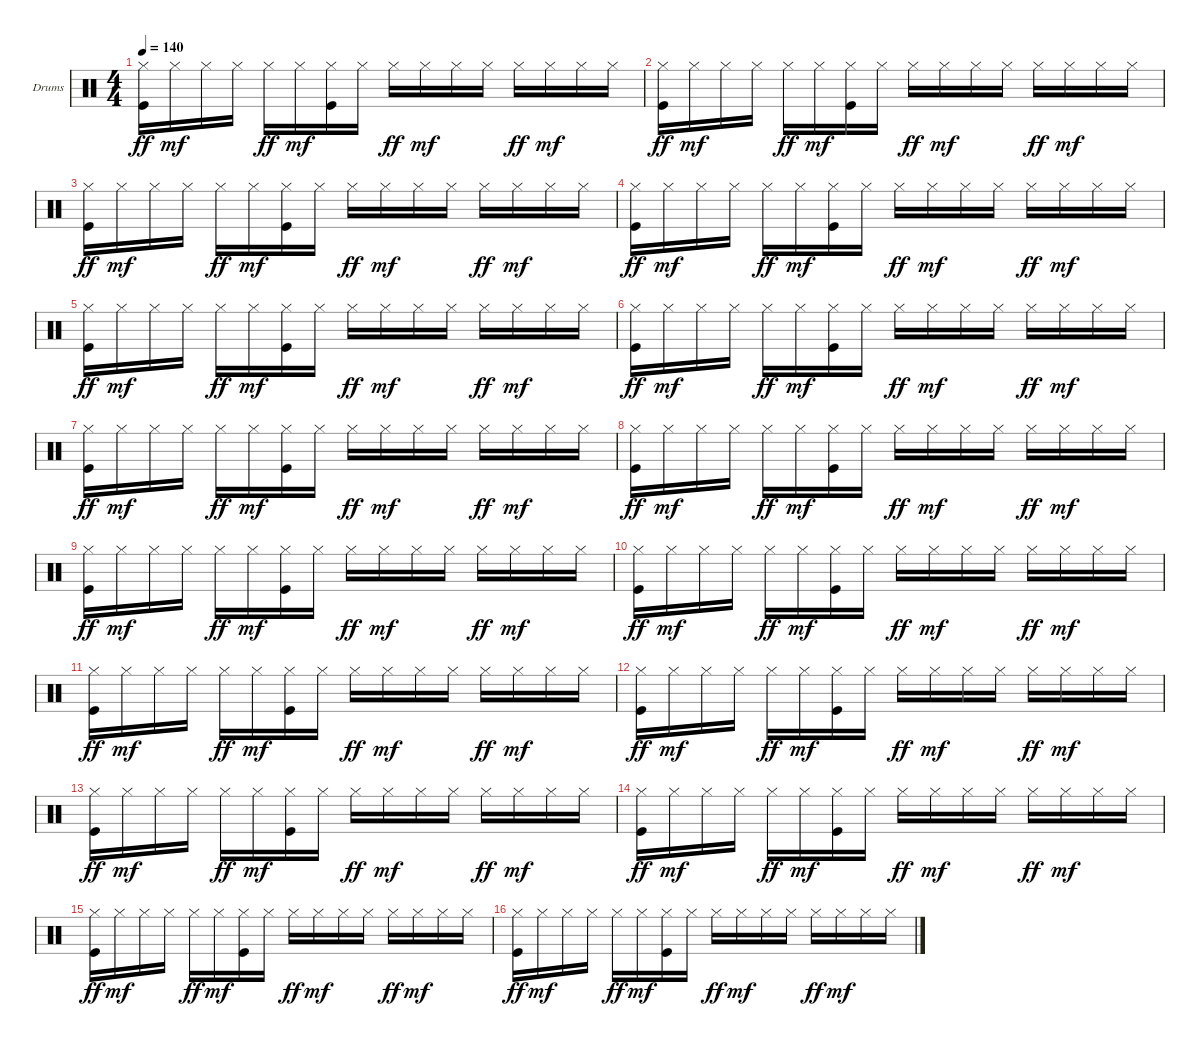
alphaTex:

\bracketExtendMode groupsimilarinstruments
\firstSystemTrackNameOrientation horizontal
\otherSystemsTrackNameOrientation horizontal
\track ("Drumkit" "Drums") {instrument percussion}
\staff {score}
\articulation defaults
\ts (4 4)
\tempo 140
\clef neutral
\ks c
("Hi-Hat (closed)" "Kick (hit)").16{dy ff} "Hi-Hat (closed)".16{dy mf} "Hi-Hat (closed)".16 "Hi-Hat (closed)".16 "Hi-Hat (closed)".16{dy ff} "Hi-Hat (closed)".16{dy mf} ("Hi-Hat (closed)" "Kick (hit)").16 "Hi-Hat (closed)".16 "Hi-Hat (closed)".16{dy ff} "Hi-Hat (closed)".16{dy mf} "Hi-Hat (closed)".16 "Hi-Hat (closed)".16 "Hi-Hat (closed)".16{dy ff} "Hi-Hat (closed)".16{dy mf} "Hi-Hat (closed)".16 "Hi-Hat (closed)".16 |
("Hi-Hat (closed)" "Kick (hit)").16{dy ff} "Hi-Hat (closed)".16{dy mf} "Hi-Hat (closed)".16 "Hi-Hat (closed)".16 "Hi-Hat (closed)".16{dy ff} "Hi-Hat (closed)".16{dy mf} ("Hi-Hat (closed)" "Kick (hit)").16 "Hi-Hat (closed)".16 "Hi-Hat (closed)".16{dy ff} "Hi-Hat (closed)".16{dy mf} "Hi-Hat (closed)".16 "Hi-Hat (closed)".16 "Hi-Hat (closed)".16{dy ff} "Hi-Hat (closed)".16{dy mf} "Hi-Hat (closed)".16 "Hi-Hat (closed)".16 |
("Hi-Hat (closed)" "Kick (hit)").16{dy ff} "Hi-Hat (closed)".16{dy mf} "Hi-Hat (closed)".16 "Hi-Hat (closed)".16 "Hi-Hat (closed)".16{dy ff} "Hi-Hat (closed)".16{dy mf} ("Hi-Hat (closed)" "Kick (hit)").16 "Hi-Hat (closed)".16 "Hi-Hat (closed)".16{dy ff} "Hi-Hat (closed)".16{dy mf} "Hi-Hat (closed)".16 "Hi-Hat (closed)".16 "Hi-Hat (closed)".16{dy ff} "Hi-Hat (closed)".16{dy mf} "Hi-Hat (closed)".16 "Hi-Hat (closed)".16 |
("Hi-Hat (closed)" "Kick (hit)").16{dy ff} "Hi-Hat (closed)".16{dy mf} "Hi-Hat (closed)".16 "Hi-Hat (closed)".16 "Hi-Hat (closed)".16{dy ff} "Hi-Hat (closed)".16{dy mf} ("Hi-Hat (closed)" "Kick (hit)").16 "Hi-Hat (closed)".16 "Hi-Hat (closed)".16{dy ff} "Hi-Hat (closed)".16{dy mf} "Hi-Hat (closed)".16 "Hi-Hat (closed)".16 "Hi-Hat (closed)".16{dy ff} "Hi-Hat (closed)".16{dy mf} "Hi-Hat (closed)".16 "Hi-Hat (closed)".16 |
("Hi-Hat (closed)" "Kick (hit)").16{dy ff} "Hi-Hat (closed)".16{dy mf} "Hi-Hat (closed)".16 "Hi-Hat (closed)".16 "Hi-Hat (closed)".16{dy ff} "Hi-Hat (closed)".16{dy mf} ("Hi-Hat (closed)" "Kick (hit)").16 "Hi-Hat (closed)".16 "Hi-Hat (closed)".16{dy ff} "Hi-Hat (closed)".16{dy mf} "Hi-Hat (closed)".16 "Hi-Hat (closed)".16 "Hi-Hat (closed)".16{dy ff} "Hi-Hat (closed)".16{dy mf} "Hi-Hat (closed)".16 "Hi-Hat (closed)".16 |
("Hi-Hat (closed)" "Kick (hit)").16{dy ff} "Hi-Hat (closed)".16{dy mf} "Hi-Hat (closed)".16 "Hi-Hat (closed)".16 "Hi-Hat (closed)".16{dy ff} "Hi-Hat (closed)".16{dy mf} ("Hi-Hat (closed)" "Kick (hit)").16 "Hi-Hat (closed)".16 "Hi-Hat (closed)".16{dy ff} "Hi-Hat (closed)".16{dy mf} "Hi-Hat (closed)".16 "Hi-Hat (closed)".16 "Hi-Hat (closed)".16{dy ff} "Hi-Hat (closed)".16{dy mf} "Hi-Hat (closed)".16 "Hi-Hat (closed)".16 |
("Hi-Hat (closed)" "Kick (hit)").16{dy ff} "Hi-Hat (closed)".16{dy mf} "Hi-Hat (closed)".16 "Hi-Hat (closed)".16 "Hi-Hat (closed)".16{dy ff} "Hi-Hat (closed)".16{dy mf} ("Hi-Hat (closed)" "Kick (hit)").16 "Hi-Hat (closed)".16 "Hi-Hat (closed)".16{dy ff} "Hi-Hat (closed)".16{dy mf} "Hi-Hat (closed)".16 "Hi-Hat (closed)".16 "Hi-Hat (closed)".16{dy ff} "Hi-Hat (closed)".16{dy mf} "Hi-Hat (closed)".16 "Hi-Hat (closed)".16 |
("Hi-Hat (closed)" "Kick (hit)").16{dy ff} "Hi-Hat (closed)".16{dy mf} "Hi-Hat (closed)".16 "Hi-Hat (closed)".16 "Hi-Hat (closed)".16{dy ff} "Hi-Hat (closed)".16{dy mf} ("Hi-Hat (closed)" "Kick (hit)").16 "Hi-Hat (closed)".16 "Hi-Hat (closed)".16{dy ff} "Hi-Hat (closed)".16{dy mf} "Hi-Hat (closed)".16 "Hi-Hat (closed)".16 "Hi-Hat (closed)".16{dy ff} "Hi-Hat (closed)".16{dy mf} "Hi-Hat (closed)".16 "Hi-Hat (closed)".16 |
("Hi-Hat (closed)" "Kick (hit)").16{dy ff} "Hi-Hat (closed)".16{dy mf} "Hi-Hat (closed)".16 "Hi-Hat (closed)".16 "Hi-Hat (closed)".16{dy ff} "Hi-Hat (closed)".16{dy mf} ("Hi-Hat (closed)" "Kick (hit)").16 "Hi-Hat (closed)".16 "Hi-Hat (closed)".16{dy ff} "Hi-Hat (closed)".16{dy mf} "Hi-Hat (closed)".16 "Hi-Hat (closed)".16 "Hi-Hat (closed)".16{dy ff} "Hi-Hat (closed)".16{dy mf} "Hi-Hat (closed)".16 "Hi-Hat (closed)".16 |
("Hi-Hat (closed)" "Kick (hit)").16{dy ff} "Hi-Hat (closed)".16{dy mf} "Hi-Hat (closed)".16 "Hi-Hat (closed)".16 "Hi-Hat (closed)".16{dy ff} "Hi-Hat (closed)".16{dy mf} ("Hi-Hat (closed)" "Kick (hit)").16 "Hi-Hat (closed)".16 "Hi-Hat (closed)".16{dy ff} "Hi-Hat (closed)".16{dy mf} "Hi-Hat (closed)".16 "Hi-Hat (closed)".16 "Hi-Hat (closed)".16{dy ff} "Hi-Hat (closed)".16{dy mf} "Hi-Hat (closed)".16 "Hi-Hat (closed)".16 |
("Hi-Hat (closed)" "Kick (hit)").16{dy ff} "Hi-Hat (closed)".16{dy mf} "Hi-Hat (closed)".16 "Hi-Hat (closed)".16 "Hi-Hat (closed)".16{dy ff} "Hi-Hat (closed)".16{dy mf} ("Hi-Hat (closed)" "Kick (hit)").16 "Hi-Hat (closed)".16 "Hi-Hat (closed)".16{dy ff} "Hi-Hat (closed)".16{dy mf} "Hi-Hat (closed)".16 "Hi-Hat (closed)".16 "Hi-Hat (closed)".16{dy ff} "Hi-Hat (closed)".16{dy mf} "Hi-Hat (closed)".16 "Hi-Hat (closed)".16 |
("Hi-Hat (closed)" "Kick (hit)").16{dy ff} "Hi-Hat (closed)".16{dy mf} "Hi-Hat (closed)".16 "Hi-Hat (closed)".16 "Hi-Hat (closed)".16{dy ff} "Hi-Hat (closed)".16{dy mf} ("Hi-Hat (closed)" "Kick (hit)").16 "Hi-Hat (closed)".16 "Hi-Hat (closed)".16{dy ff} "Hi-Hat (closed)".16{dy mf} "Hi-Hat (closed)".16 "Hi-Hat (closed)".16 "Hi-Hat (closed)".16{dy ff} "Hi-Hat (closed)".16{dy mf} "Hi-Hat (closed)".16 "Hi-Hat (closed)".16 |
("Hi-Hat (closed)" "Kick (hit)").16{dy ff} "Hi-Hat (closed)".16{dy mf} "Hi-Hat (closed)".16 "Hi-Hat (closed)".16 "Hi-Hat (closed)".16{dy ff} "Hi-Hat (closed)".16{dy mf} ("Hi-Hat (closed)" "Kick (hit)").16 "Hi-Hat (closed)".16 "Hi-Hat (closed)".16{dy ff} "Hi-Hat (closed)".16{dy mf} "Hi-Hat (closed)".16 "Hi-Hat (closed)".16 "Hi-Hat (closed)".16{dy ff} "Hi-Hat (closed)".16{dy mf} "Hi-Hat (closed)".16 "Hi-Hat (closed)".16 |
("Hi-Hat (closed)" "Kick (hit)").16{dy ff} "Hi-Hat (closed)".16{dy mf} "Hi-Hat (closed)".16 "Hi-Hat (closed)".16 "Hi-Hat (closed)".16{dy ff} "Hi-Hat (closed)".16{dy mf} ("Hi-Hat (closed)" "Kick (hit)").16 "Hi-Hat (closed)".16 "Hi-Hat (closed)".16{dy ff} "Hi-Hat (closed)".16{dy mf} "Hi-Hat (closed)".16 "Hi-Hat (closed)".16 "Hi-Hat (closed)".16{dy ff} "Hi-Hat (closed)".16{dy mf} "Hi-Hat (closed)".16 "Hi-Hat (closed)".16 |
("Hi-Hat (closed)" "Kick (hit)").16{dy ff} "Hi-Hat (closed)".16{dy mf} "Hi-Hat (closed)".16 "Hi-Hat (closed)".16 "Hi-Hat (closed)".16{dy ff} "Hi-Hat (closed)".16{dy mf} ("Hi-Hat (closed)" "Kick (hit)").16 "Hi-Hat (closed)".16 "Hi-Hat (closed)".16{dy ff} "Hi-Hat (closed)".16{dy mf} "Hi-Hat (closed)".16 "Hi-Hat (closed)".16 "Hi-Hat (closed)".16{dy ff} "Hi-Hat (closed)".16{dy mf} "Hi-Hat (closed)".16 "Hi-Hat (closed)".16 |
("Hi-Hat (closed)" "Kick (hit)").16{dy ff} "Hi-Hat (closed)".16{dy mf} "Hi-Hat (closed)".16 "Hi-Hat (closed)".16 "Hi-Hat (closed)".16{dy ff} "Hi-Hat (closed)".16{dy mf} ("Hi-Hat (closed)" "Kick (hit)").16 "Hi-Hat (closed)".16 "Hi-Hat (closed)".16{dy ff} "Hi-Hat (closed)".16{dy mf} "Hi-Hat (closed)".16 "Hi-Hat (closed)".16 "Hi-Hat (closed)".16{dy ff} "Hi-Hat (closed)".16{dy mf} "Hi-Hat (closed)".16 "Hi-Hat (closed)".16
